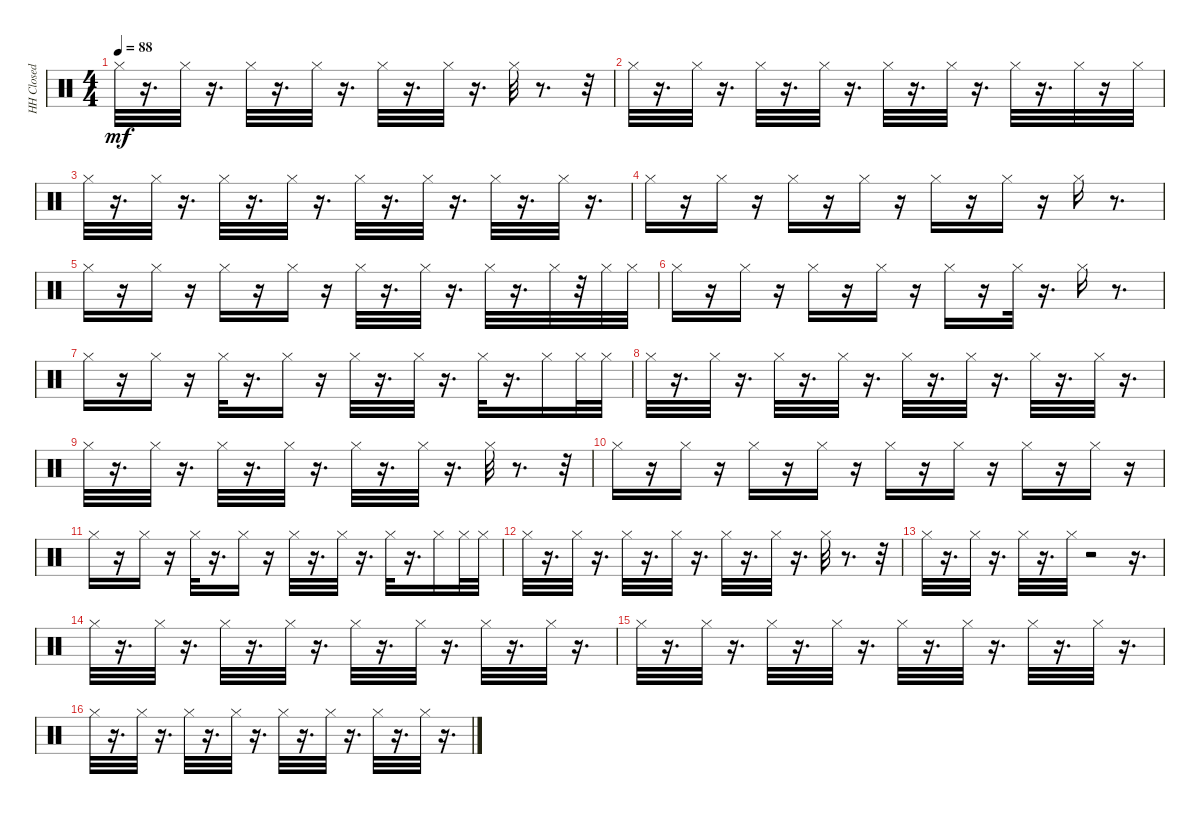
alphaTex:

\track ("HH Closed" "HH Closed") {instrument percussion}
\staff {score}
\articulation defaults
\ts (4 4)
\tempo 88
\clef neutral
\ks c "Hi-Hat (closed)".32{dy mf}
r.16{d} "Hi-Hat (closed)".32 r.16{d} "Hi-Hat (closed)".32 r.16{d} "Hi-Hat (closed)".32 r.16{d} "Hi-Hat (closed)".32 r.16{d} "Hi-Hat (closed)".32 r.16{d} "Hi-Hat (closed)".32 r.8{d} r.32 |
"Hi-Hat (closed)".32 r.16{d} "Hi-Hat (closed)".32 r.16{d} "Hi-Hat (closed)".32 r.16{d} "Hi-Hat (closed)".32 r.16{d} "Hi-Hat (closed)".32 r.16{d} "Hi-Hat (closed)".32 r.16{d} "Hi-Hat (closed)".32 r.16{d} "Hi-Hat (closed)".32 r.16 "Hi-Hat (closed)".32 |
"Hi-Hat (closed)".32 r.16{d} "Hi-Hat (closed)".32 r.16{d} "Hi-Hat (closed)".32 r.16{d} "Hi-Hat (closed)".32 r.16{d} "Hi-Hat (closed)".32 r.16{d} "Hi-Hat (closed)".32 r.16{d} "Hi-Hat (closed)".32 r.16{d} "Hi-Hat (closed)".32 r.16{d} |
"Hi-Hat (closed)".16 r.16 "Hi-Hat (closed)".16 r.16 "Hi-Hat (closed)".16 r.16 "Hi-Hat (closed)".16 r.16 "Hi-Hat (closed)".16 r.16 "Hi-Hat (closed)".16 r.16 "Hi-Hat (closed)".16 r.8{d} |
"Hi-Hat (closed)".16 r.16 "Hi-Hat (closed)".16 r.16 "Hi-Hat (closed)".16 r.16 "Hi-Hat (closed)".16 r.16 "Hi-Hat (closed)".32 r.16{d} "Hi-Hat (closed)".32 r.16{d} "Hi-Hat (closed)".32 r.16{d} "Hi-Hat (closed)".32 r.32 "Hi-Hat (closed)".32 "Hi-Hat (closed)".32 |
"Hi-Hat (closed)".16 r.16 "Hi-Hat (closed)".16 r.16 "Hi-Hat (closed)".16 r.16 "Hi-Hat (closed)".16 r.16 "Hi-Hat (closed)".16 r.16 "Hi-Hat (closed)".32 r.16{d} "Hi-Hat (closed)".16 r.8{d} |
"Hi-Hat (closed)".16 r.16 "Hi-Hat (closed)".16 r.16 "Hi-Hat (closed)".32 r.16{d} "Hi-Hat (closed)".16 r.16 "Hi-Hat (closed)".32 r.16{d} "Hi-Hat (closed)".32 r.16{d} "Hi-Hat (closed)".32 r.16{d} "Hi-Hat (closed)".16 "Hi-Hat (closed)".32 "Hi-Hat (closed)".32 |
"Hi-Hat (closed)".32 r.16{d} "Hi-Hat (closed)".32 r.16{d} "Hi-Hat (closed)".32 r.16{d} "Hi-Hat (closed)".32 r.16{d} "Hi-Hat (closed)".32 r.16{d} "Hi-Hat (closed)".32 r.16{d} "Hi-Hat (closed)".32 r.16{d} "Hi-Hat (closed)".32 r.16{d} |
"Hi-Hat (closed)".32 r.16{d} "Hi-Hat (closed)".32 r.16{d} "Hi-Hat (closed)".32 r.16{d} "Hi-Hat (closed)".32 r.16{d} "Hi-Hat (closed)".32 r.16{d} "Hi-Hat (closed)".32 r.16{d} "Hi-Hat (closed)".32 r.8{d} r.32 |
"Hi-Hat (closed)".16 r.16 "Hi-Hat (closed)".16 r.16 "Hi-Hat (closed)".16 r.16 "Hi-Hat (closed)".16 r.16 "Hi-Hat (closed)".16 r.16 "Hi-Hat (closed)".16 r.16 "Hi-Hat (closed)".16 r.16 "Hi-Hat (closed)".16 r.16 |
"Hi-Hat (closed)".16 r.16 "Hi-Hat (closed)".16 r.16 "Hi-Hat (closed)".32 r.16{d} "Hi-Hat (closed)".16 r.16 "Hi-Hat (closed)".32 r.16{d} "Hi-Hat (closed)".32 r.16{d} "Hi-Hat (closed)".32 r.16{d} "Hi-Hat (closed)".16 "Hi-Hat (closed)".32 "Hi-Hat (closed)".32 |
"Hi-Hat (closed)".32 r.16{d} "Hi-Hat (closed)".32 r.16{d} "Hi-Hat (closed)".32 r.16{d} "Hi-Hat (closed)".32 r.16{d} "Hi-Hat (closed)".32 r.16{d} "Hi-Hat (closed)".32 r.16{d} "Hi-Hat (closed)".32 r.8{d} r.32 |
"Hi-Hat (closed)".32 r.16{d} "Hi-Hat (closed)".32 r.16{d} "Hi-Hat (closed)".32 r.16{d} "Hi-Hat (closed)".32 r.2 r.16{d} |
"Hi-Hat (closed)".32 r.16{d} "Hi-Hat (closed)".32 r.16{d} "Hi-Hat (closed)".32 r.16{d} "Hi-Hat (closed)".32 r.16{d} "Hi-Hat (closed)".32 r.16{d} "Hi-Hat (closed)".32 r.16{d} "Hi-Hat (closed)".32 r.16{d} "Hi-Hat (closed)".32 r.16{d} |
"Hi-Hat (closed)".32 r.16{d} "Hi-Hat (closed)".32 r.16{d} "Hi-Hat (closed)".32 r.16{d} "Hi-Hat (closed)".32 r.16{d} "Hi-Hat (closed)".32 r.16{d} "Hi-Hat (closed)".32 r.16{d} "Hi-Hat (closed)".32 r.16{d} "Hi-Hat (closed)".32 r.16{d} |
"Hi-Hat (closed)".32 r.16{d} "Hi-Hat (closed)".32 r.16{d} "Hi-Hat (closed)".32 r.16{d} "Hi-Hat (closed)".32 r.16{d} "Hi-Hat (closed)".32 r.16{d} "Hi-Hat (closed)".32 r.16{d} "Hi-Hat (closed)".32 r.16{d} "Hi-Hat (closed)".32 r.16{d}
